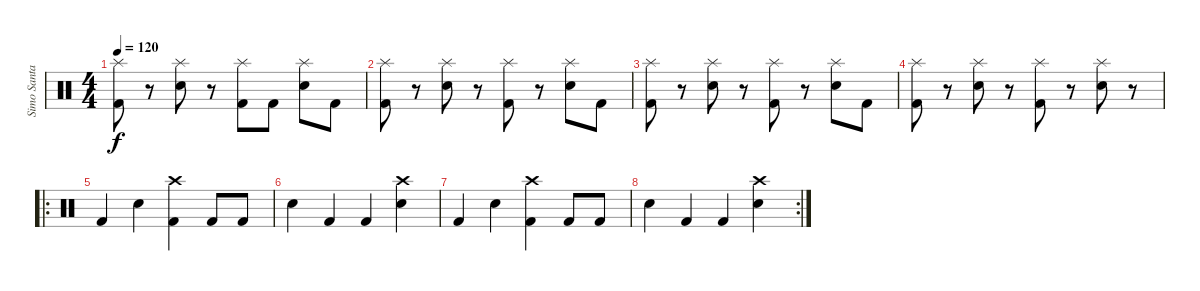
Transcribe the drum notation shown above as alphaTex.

\track ("Simo Santapukki" "Simo Santa") {instrument percussion}
\staff {score}
\articulation defaults
\ts (4 4)
\tempo 120
\clef neutral
\ks c
("Kick (hit) 2" "Splash (hit)").8{dy f} r.8 ("Electric Snare (hit)" "Splash (hit)").8 r.8 ("Kick (hit) 2" "Splash (hit)").8 "Kick (hit) 2".8 ("Electric Snare (hit)" "Splash (hit)").8 "Kick (hit) 2".8 |
("Kick (hit) 2" "Splash (hit)").8 r.8 ("Electric Snare (hit)" "Splash (hit)").8 r.8 ("Kick (hit) 2" "Splash (hit)").8 r.8 ("Electric Snare (hit)" "Splash (hit)").8 "Kick (hit) 2".8 |
("Kick (hit) 2" "Splash (hit)").8 r.8 ("Electric Snare (hit)" "Splash (hit)").8 r.8 ("Kick (hit) 2" "Splash (hit)").8 r.8 ("Electric Snare (hit)" "Splash (hit)").8 "Kick (hit) 2".8 |
("Kick (hit) 2" "Splash (hit)").8 r.8 ("Electric Snare (hit)" "Splash (hit)").8 r.8 ("Kick (hit) 2" "Splash (hit)").8 r.8 ("Electric Snare (hit)" "Splash (hit)").8 r.8 |
\ro "Kick (hit) 2".4 "Electric Snare (hit)".4
("Kick (hit) 2" "Crash high (hit)").4 "Kick (hit) 2".8 "Kick (hit) 2".8 |
"Electric Snare (hit)".4 "Kick (hit) 2".4 "Kick (hit) 2".4 ("Electric Snare (hit)" "Crash high (hit)").4 |
"Kick (hit) 2".4 "Electric Snare (hit)".4 ("Kick (hit) 2" "Crash high (hit)").4 "Kick (hit) 2".8 "Kick (hit) 2".8 |
\rc 2 "Electric Snare (hit)".4 "Kick (hit) 2".4 "Kick (hit) 2".4
("Electric Snare (hit)" "Crash high (hit)").4
